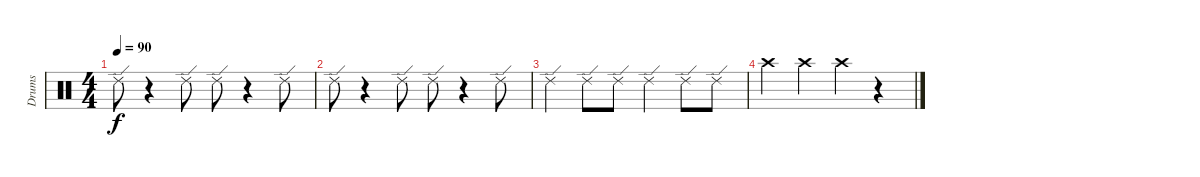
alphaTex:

\track ("Drums" "Drums") {instrument percussion}
\staff {score}
\articulation defaults
\ts (4 4)
\tempo 90
\clef neutral
\ks c "Ride (edge) 2".8{dy f}
r.4 "Ride (edge) 2".8 "Ride (edge) 2".8 r.4 "Ride (edge) 2".8 |
"Ride (edge) 2".8 r.4 "Ride (edge) 2".8 "Ride (edge) 2".8 r.4 "Ride (edge) 2".8 |
"Ride (edge) 2".4 "Ride (edge) 2".8 "Ride (edge) 2".8 "Ride (edge) 2".4 "Ride (edge) 2".8 "Ride (edge) 2".8 |
"Crash high (hit)".4 "Crash high (hit)".4 "Crash high (hit)".4 r.4
